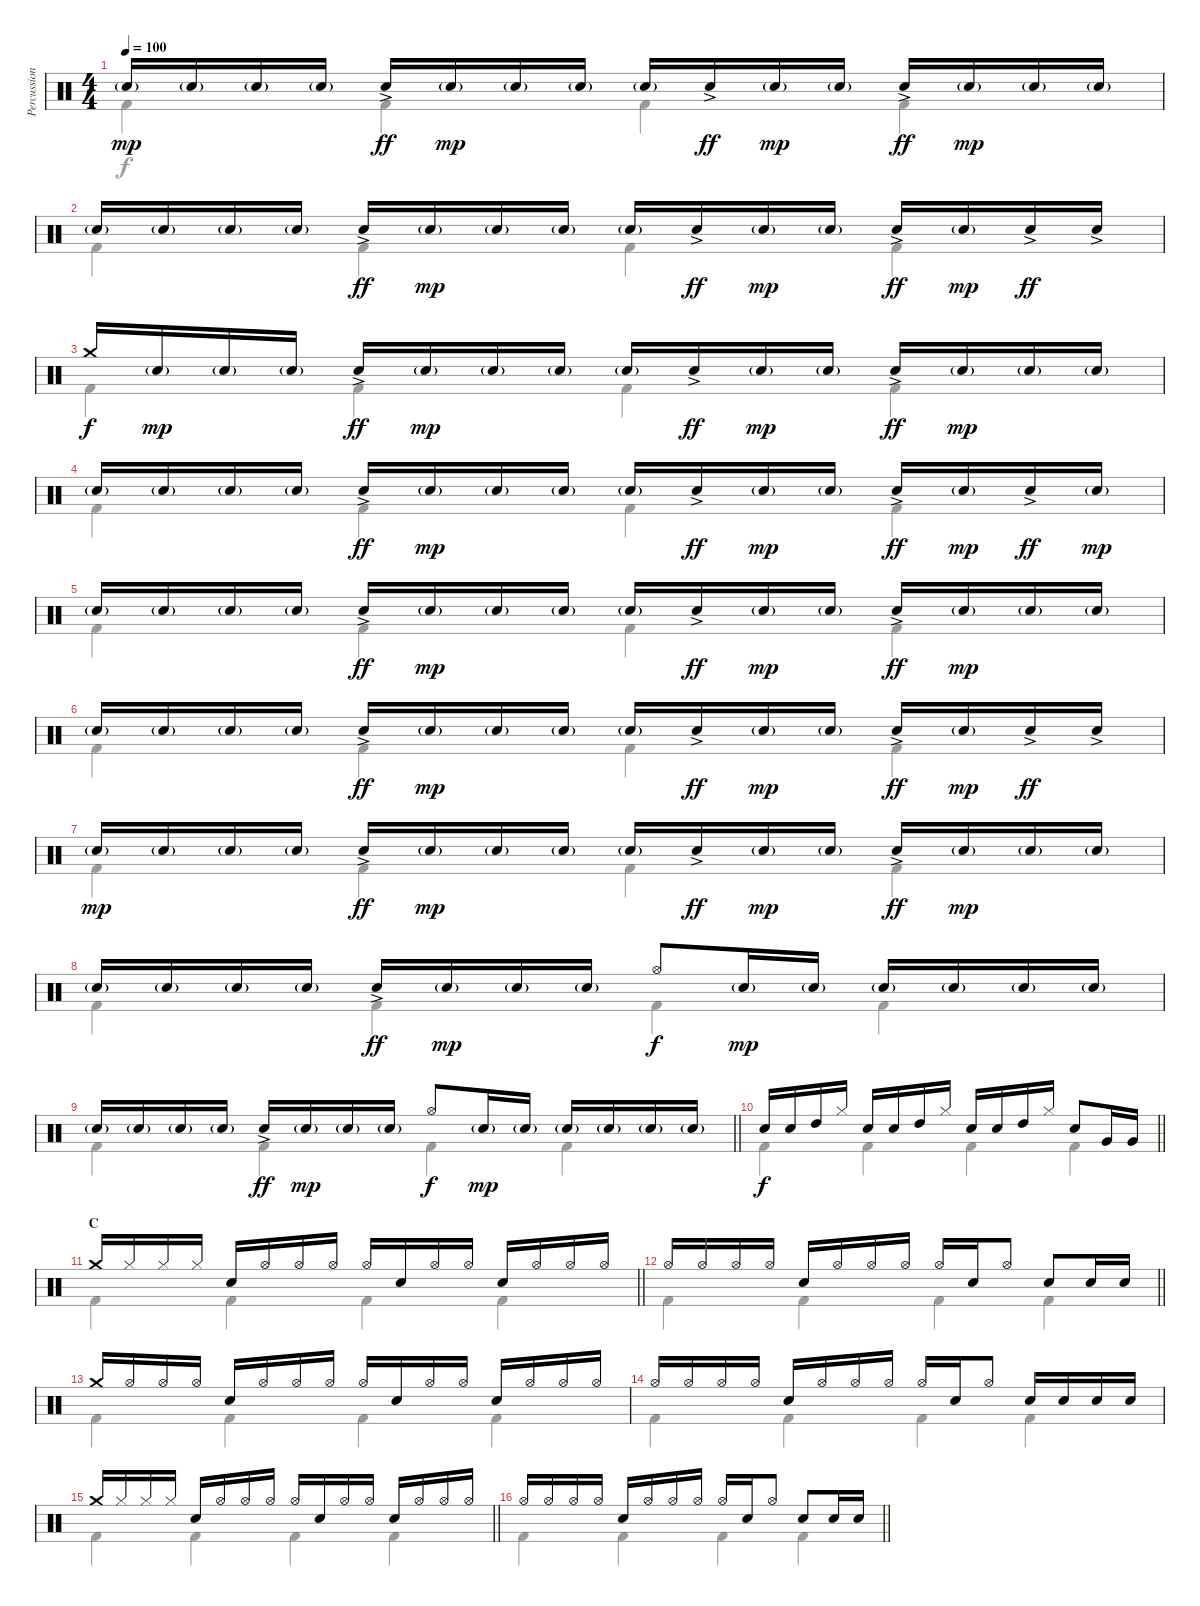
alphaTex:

\track ("Percussion" "Percussion") {instrument percussion}
\staff {score}
\articulation defaults
\voice
\ts (4 4)
\tempo 100
\clef neutral
\ks c "Snare (hit) 2"{g}.16{dy mp} "Snare (hit) 2"{g}.16 "Snare (hit) 2"{g}.16 "Snare (hit) 2"{g}.16 "Snare (hit) 2"{ac}.16{dy ff} "Snare (hit) 2"{g}.16{dy mp} "Snare (hit) 2"{g}.16 "Snare (hit) 2"{g}.16 "Snare (hit) 2"{g}.16 "Snare (hit) 2"{ac}.16{dy ff} "Snare (hit) 2"{g}.16{dy mp} "Snare (hit) 2"{g}.16 "Snare (hit) 2"{ac}.16{dy ff} "Snare (hit) 2"{g}.16{dy mp} "Snare (hit) 2"{g}.16 "Snare (hit) 2"{g}.16
|
"Snare (hit) 2"{g}.16 "Snare (hit) 2"{g}.16 "Snare (hit) 2"{g}.16 "Snare (hit) 2"{g}.16 "Snare (hit) 2"{ac}.16{dy ff} "Snare (hit) 2"{g}.16{dy mp} "Snare (hit) 2"{g}.16 "Snare (hit) 2"{g}.16 "Snare (hit) 2"{g}.16 "Snare (hit) 2"{ac}.16{dy ff} "Snare (hit) 2"{g}.16{dy mp} "Snare (hit) 2"{g}.16 "Snare (hit) 2"{ac}.16{dy ff} "Snare (hit) 2"{g}.16{dy mp} "Snare (hit) 2"{ac}.16{dy ff} "Snare (hit) 2"{ac}.16 |
"Crash medium (hit)".16{dy f} "Snare (hit) 2"{g}.16{dy mp} "Snare (hit) 2"{g}.16 "Snare (hit) 2"{g}.16 "Snare (hit) 2"{ac}.16{dy ff} "Snare (hit) 2"{g}.16{dy mp} "Snare (hit) 2"{g}.16 "Snare (hit) 2"{g}.16 "Snare (hit) 2"{g}.16 "Snare (hit) 2"{ac}.16{dy ff} "Snare (hit) 2"{g}.16{dy mp} "Snare (hit) 2"{g}.16 "Snare (hit) 2"{ac}.16{dy ff} "Snare (hit) 2"{g}.16{dy mp} "Snare (hit) 2"{g}.16 "Snare (hit) 2"{g}.16 |
"Snare (hit) 2"{g}.16 "Snare (hit) 2"{g}.16 "Snare (hit) 2"{g}.16 "Snare (hit) 2"{g}.16 "Snare (hit) 2"{ac}.16{dy ff} "Snare (hit) 2"{g}.16{dy mp} "Snare (hit) 2"{g}.16 "Snare (hit) 2"{g}.16 "Snare (hit) 2"{g}.16 "Snare (hit) 2"{ac}.16{dy ff} "Snare (hit) 2"{g}.16{dy mp} "Snare (hit) 2"{g}.16 "Snare (hit) 2"{ac}.16{dy ff} "Snare (hit) 2"{g}.16{dy mp} "Snare (hit) 2"{ac}.16{dy ff} "Snare (hit) 2"{g}.16{dy mp} |
"Snare (hit) 2"{g}.16 "Snare (hit) 2"{g}.16 "Snare (hit) 2"{g}.16 "Snare (hit) 2"{g}.16 "Snare (hit) 2"{ac}.16{dy ff} "Snare (hit) 2"{g}.16{dy mp} "Snare (hit) 2"{g}.16 "Snare (hit) 2"{g}.16 "Snare (hit) 2"{g}.16 "Snare (hit) 2"{ac}.16{dy ff} "Snare (hit) 2"{g}.16{dy mp} "Snare (hit) 2"{g}.16 "Snare (hit) 2"{ac}.16{dy ff} "Snare (hit) 2"{g}.16{dy mp} "Snare (hit) 2"{g}.16 "Snare (hit) 2"{g}.16 |
"Snare (hit) 2"{g}.16 "Snare (hit) 2"{g}.16 "Snare (hit) 2"{g}.16 "Snare (hit) 2"{g}.16 "Snare (hit) 2"{ac}.16{dy ff} "Snare (hit) 2"{g}.16{dy mp} "Snare (hit) 2"{g}.16 "Snare (hit) 2"{g}.16 "Snare (hit) 2"{g}.16 "Snare (hit) 2"{ac}.16{dy ff} "Snare (hit) 2"{g}.16{dy mp} "Snare (hit) 2"{g}.16 "Snare (hit) 2"{ac}.16{dy ff} "Snare (hit) 2"{g}.16{dy mp} "Snare (hit) 2"{ac}.16{dy ff} "Snare (hit) 2"{ac}.16 |
"Snare (hit) 2"{g}.16{dy mp} "Snare (hit) 2"{g}.16 "Snare (hit) 2"{g}.16 "Snare (hit) 2"{g}.16 "Snare (hit) 2"{ac}.16{dy ff} "Snare (hit) 2"{g}.16{dy mp} "Snare (hit) 2"{g}.16 "Snare (hit) 2"{g}.16 "Snare (hit) 2"{g}.16 "Snare (hit) 2"{ac}.16{dy ff} "Snare (hit) 2"{g}.16{dy mp} "Snare (hit) 2"{g}.16 "Snare (hit) 2"{ac}.16{dy ff} "Snare (hit) 2"{g}.16{dy mp} "Snare (hit) 2"{g}.16 "Snare (hit) 2"{g}.16 |
"Snare (hit) 2"{g}.16 "Snare (hit) 2"{g}.16 "Snare (hit) 2"{g}.16 "Snare (hit) 2"{g}.16 "Snare (hit) 2"{ac}.16{dy ff} "Snare (hit) 2"{g}.16{dy mp} "Snare (hit) 2"{g}.16 "Snare (hit) 2"{g}.16 "Hi-Hat (open)".8{dy f} "Snare (hit) 2"{g}.16{dy mp} "Snare (hit) 2"{g}.16 "Snare (hit) 2"{g}.16 "Snare (hit) 2"{g}.16 "Snare (hit) 2"{g}.16 "Snare (hit) 2"{g}.16 |
\barLineRight lightlight "Snare (hit) 2"{g}.16 "Snare (hit) 2"{g}.16 "Snare (hit) 2"{g}.16 "Snare (hit) 2"{g}.16 "Snare (hit) 2"{ac}.16{dy ff} "Snare (hit) 2"{g}.16{dy mp} "Snare (hit) 2"{g}.16 "Snare (hit) 2"{g}.16 "Hi-Hat (open)".8{dy f} "Snare (hit) 2"{g}.16{dy mp} "Snare (hit) 2"{g}.16 "Snare (hit) 2"{g}.16 "Snare (hit) 2"{g}.16 "Snare (hit) 2"{g}.16 "Snare (hit) 2"{g}.16
|
\barLineRight lightlight "Snare (hit) 2".16{dy f} "Snare (hit) 2".16 "High Tom (hit)".16 "Hi-Hat (closed)".16 "Snare (hit) 2".16 "Snare (hit) 2".16 "High Tom (hit)".16 "Hi-Hat (closed)".16 "Snare (hit) 2".16 "Snare (hit) 2".16 "High Tom (hit)".16 "Hi-Hat (closed)".16 "Snare (hit) 2".8 "Very Low Tom (hit)".16 "Very Low Tom (hit)".16
|
\section ("" "C")
\barLineRight lightlight "Crash medium (hit)".16 "Hi-Hat (closed)".16 "Hi-Hat (closed)".16 "Hi-Hat (closed)".16 "Snare (hit) 2".16 "Hi-Hat (open)".16 "Hi-Hat (open)".16 "Hi-Hat (open)".16 "Hi-Hat (open)".16 "Snare (hit) 2".16 "Hi-Hat (open)".16 "Hi-Hat (open)".16 "Snare (hit) 2".16 "Hi-Hat (open)".16 "Hi-Hat (open)".16 "Hi-Hat (open)".16
|
\barLineRight lightlight "Hi-Hat (open)".16 "Hi-Hat (open)".16 "Hi-Hat (open)".16 "Hi-Hat (open)".16 "Snare (hit) 2".16 "Hi-Hat (open)".16 "Hi-Hat (open)".16 "Hi-Hat (open)".16 "Hi-Hat (open)".16 "Snare (hit) 2".16 "Hi-Hat (open)".8 "Snare (hit) 2".8 "Snare (hit) 2".16 "Snare (hit) 2".16
|
"Crash medium (hit)".16 "Hi-Hat (open)".16 "Hi-Hat (open)".16 "Hi-Hat (open)".16 "Snare (hit) 2".16 "Hi-Hat (open)".16 "Hi-Hat (open)".16 "Hi-Hat (open)".16 "Hi-Hat (open)".16 "Snare (hit) 2".16 "Hi-Hat (open)".16 "Hi-Hat (open)".16 "Snare (hit) 2".16 "Hi-Hat (open)".16 "Hi-Hat (open)".16 "Hi-Hat (open)".16 |
"Hi-Hat (open)".16 "Hi-Hat (open)".16 "Hi-Hat (open)".16 "Hi-Hat (open)".16 "Snare (hit) 2".16 "Hi-Hat (open)".16 "Hi-Hat (open)".16 "Hi-Hat (open)".16 "Hi-Hat (open)".16 "Snare (hit) 2".16 "Hi-Hat (open)".8 "Snare (hit) 2".16 "Snare (hit) 2".16 "Snare (hit) 2".16 "Snare (hit) 2".16 |
\barLineRight lightlight "Crash medium (hit)".16 "Hi-Hat (closed)".16 "Hi-Hat (closed)".16 "Hi-Hat (closed)".16 "Snare (hit) 2".16 "Hi-Hat (open)".16 "Hi-Hat (open)".16 "Hi-Hat (open)".16 "Hi-Hat (open)".16 "Snare (hit) 2".16 "Hi-Hat (open)".16 "Hi-Hat (open)".16 "Snare (hit) 2".16 "Hi-Hat (open)".16 "Hi-Hat (open)".16 "Hi-Hat (open)".16
|
\barLineRight lightlight "Hi-Hat (open)".16 "Hi-Hat (open)".16 "Hi-Hat (open)".16 "Hi-Hat (open)".16 "Snare (hit) 2".16 "Hi-Hat (open)".16 "Hi-Hat (open)".16 "Hi-Hat (open)".16 "Hi-Hat (open)".16 "Snare (hit) 2".16 "Hi-Hat (open)".8 "Snare (hit) 2".8 "Snare (hit) 2".16 "Snare (hit) 2".16
\voice
\clef neutral
\ottava regular
\simile none
\ks c "Kick (hit) 2".4{dy f} "Kick (hit) 2".4 "Kick (hit) 2".4 "Kick (hit) 2".4
|
"Kick (hit) 2".4 "Kick (hit) 2".4 "Kick (hit) 2".4 "Kick (hit) 2".4 |
"Kick (hit) 2".4 "Kick (hit) 2".4 "Kick (hit) 2".4 "Kick (hit) 2".4 |
"Kick (hit) 2".4 "Kick (hit) 2".4 "Kick (hit) 2".4 "Kick (hit) 2".4 |
"Kick (hit) 2".4 "Kick (hit) 2".4 "Kick (hit) 2".4 "Kick (hit) 2".4 |
"Kick (hit) 2".4 "Kick (hit) 2".4 "Kick (hit) 2".4 "Kick (hit) 2".4 |
"Kick (hit) 2".4 "Kick (hit) 2".4 "Kick (hit) 2".4 "Kick (hit) 2".4 |
"Kick (hit) 2".4 "Kick (hit) 2".4 "Kick (hit) 2".4 "Kick (hit) 2".4 |
\barLineRight lightlight "Kick (hit) 2".4 "Kick (hit) 2".4 "Kick (hit) 2".4 "Kick (hit) 2".4
|
\barLineRight lightlight "Kick (hit) 2".4 "Kick (hit) 2".4 "Kick (hit) 2".4 "Kick (hit) 2".4
|
\barLineRight lightlight "Kick (hit) 2".4 "Kick (hit) 2".4 "Kick (hit) 2".4 "Kick (hit) 2".4
|
\barLineRight lightlight "Kick (hit) 2".4 "Kick (hit) 2".4 "Kick (hit) 2".4 "Kick (hit) 2".4
|
"Kick (hit) 2".4 "Kick (hit) 2".4 "Kick (hit) 2".4 "Kick (hit) 2".4 |
"Kick (hit) 2".4 "Kick (hit) 2".4 "Kick (hit) 2".4 "Kick (hit) 2".4 |
\barLineRight lightlight "Kick (hit) 2".4 "Kick (hit) 2".4 "Kick (hit) 2".4 "Kick (hit) 2".4
|
\barLineRight lightlight "Kick (hit) 2".4 "Kick (hit) 2".4 "Kick (hit) 2".4 "Kick (hit) 2".4
